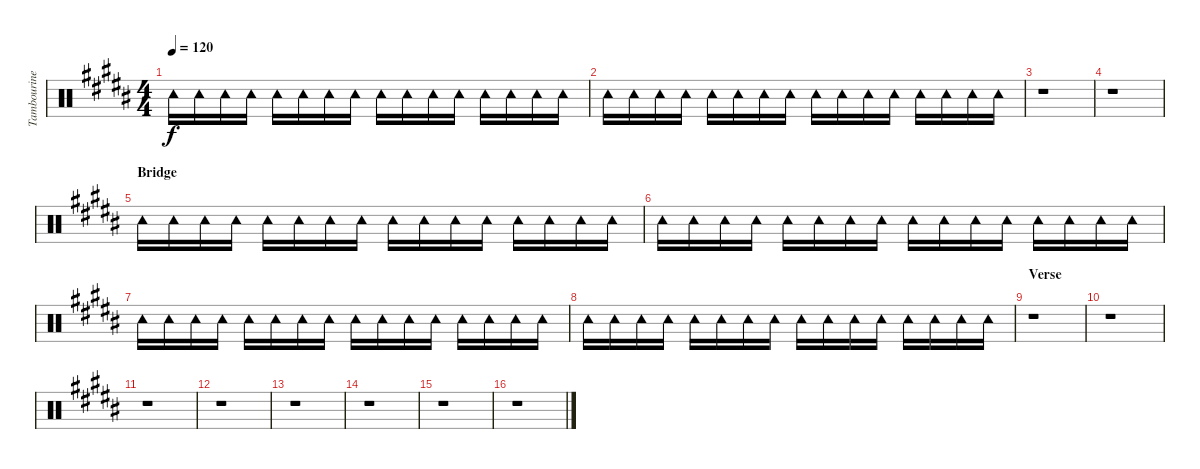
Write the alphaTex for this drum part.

\track ("Tambourine" "Tambourine") {instrument percussion}
\staff {score}
\articulation defaults
\ts (4 4)
\tempo 120
\clef neutral
\ks b "Tambourine (hit)".16{dy f} "Tambourine (hit)".16 "Tambourine (hit)".16 "Tambourine (hit)".16 "Tambourine (hit)".16 "Tambourine (hit)".16 "Tambourine (hit)".16 "Tambourine (hit)".16 "Tambourine (hit)".16 "Tambourine (hit)".16 "Tambourine (hit)".16 "Tambourine (hit)".16 "Tambourine (hit)".16 "Tambourine (hit)".16 "Tambourine (hit)".16 "Tambourine (hit)".16
|
"Tambourine (hit)".16 "Tambourine (hit)".16 "Tambourine (hit)".16 "Tambourine (hit)".16 "Tambourine (hit)".16 "Tambourine (hit)".16 "Tambourine (hit)".16 "Tambourine (hit)".16 "Tambourine (hit)".16 "Tambourine (hit)".16 "Tambourine (hit)".16 "Tambourine (hit)".16 "Tambourine (hit)".16 "Tambourine (hit)".16 "Tambourine (hit)".16 "Tambourine (hit)".16 |
r.1 |
r.1 |
\section ("" "Bridge")
"Tambourine (hit)".16 "Tambourine (hit)".16 "Tambourine (hit)".16 "Tambourine (hit)".16 "Tambourine (hit)".16 "Tambourine (hit)".16 "Tambourine (hit)".16 "Tambourine (hit)".16 "Tambourine (hit)".16 "Tambourine (hit)".16 "Tambourine (hit)".16 "Tambourine (hit)".16 "Tambourine (hit)".16 "Tambourine (hit)".16 "Tambourine (hit)".16 "Tambourine (hit)".16 |
"Tambourine (hit)".16 "Tambourine (hit)".16 "Tambourine (hit)".16 "Tambourine (hit)".16 "Tambourine (hit)".16 "Tambourine (hit)".16 "Tambourine (hit)".16 "Tambourine (hit)".16 "Tambourine (hit)".16 "Tambourine (hit)".16 "Tambourine (hit)".16 "Tambourine (hit)".16 "Tambourine (hit)".16 "Tambourine (hit)".16 "Tambourine (hit)".16 "Tambourine (hit)".16 |
"Tambourine (hit)".16 "Tambourine (hit)".16 "Tambourine (hit)".16 "Tambourine (hit)".16 "Tambourine (hit)".16 "Tambourine (hit)".16 "Tambourine (hit)".16 "Tambourine (hit)".16 "Tambourine (hit)".16 "Tambourine (hit)".16 "Tambourine (hit)".16 "Tambourine (hit)".16 "Tambourine (hit)".16 "Tambourine (hit)".16 "Tambourine (hit)".16 "Tambourine (hit)".16 |
"Tambourine (hit)".16 "Tambourine (hit)".16 "Tambourine (hit)".16 "Tambourine (hit)".16 "Tambourine (hit)".16 "Tambourine (hit)".16 "Tambourine (hit)".16 "Tambourine (hit)".16 "Tambourine (hit)".16 "Tambourine (hit)".16 "Tambourine (hit)".16 "Tambourine (hit)".16 "Tambourine (hit)".16 "Tambourine (hit)".16 "Tambourine (hit)".16 "Tambourine (hit)".16 |
\section ("" "Verse")
r.1 |
r.1 |
r.1 |
r.1 |
r.1 |
r.1 |
r.1 |
r.1
